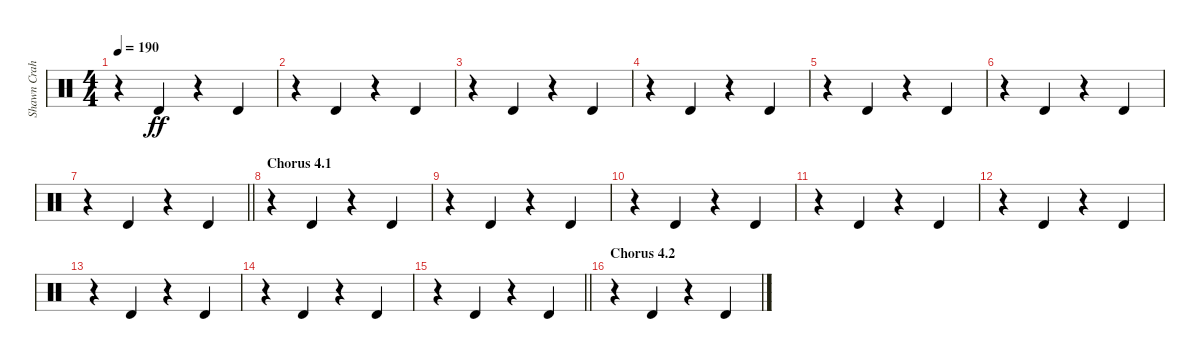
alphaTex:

\track ("Shawn Crahan" "Shawn Crah") {instrument percussion}
\staff {score}
\articulation defaults
\ts (4 4)
\tempo 190
\clef neutral
\ks c
r.4{dy ff} "Timbale high (hit)".4 r.4 "Timbale high (hit)".4 |
r.4 "Timbale high (hit)".4 r.4 "Timbale high (hit)".4 |
r.4 "Timbale high (hit)".4 r.4 "Timbale high (hit)".4 |
r.4 "Timbale high (hit)".4 r.4 "Timbale high (hit)".4 |
r.4 "Timbale high (hit)".4 r.4 "Timbale high (hit)".4 |
r.4 "Timbale high (hit)".4 r.4 "Timbale high (hit)".4 |
\barLineRight lightlight
r.4 "Timbale high (hit)".4 r.4 "Timbale high (hit)".4 |
\section ("" "Chorus 4.1")
r.4 "Timbale high (hit)".4 r.4 "Timbale high (hit)".4 |
r.4 "Timbale high (hit)".4 r.4 "Timbale high (hit)".4 |
r.4 "Timbale high (hit)".4 r.4 "Timbale high (hit)".4 |
r.4 "Timbale high (hit)".4 r.4 "Timbale high (hit)".4 |
r.4 "Timbale high (hit)".4 r.4 "Timbale high (hit)".4 |
r.4 "Timbale high (hit)".4 r.4 "Timbale high (hit)".4 |
r.4 "Timbale high (hit)".4 r.4 "Timbale high (hit)".4 |
\barLineRight lightlight
r.4 "Timbale high (hit)".4 r.4 "Timbale high (hit)".4 |
\section ("" "Chorus 4.2")
r.4 "Timbale high (hit)".4 r.4 "Timbale high (hit)".4
